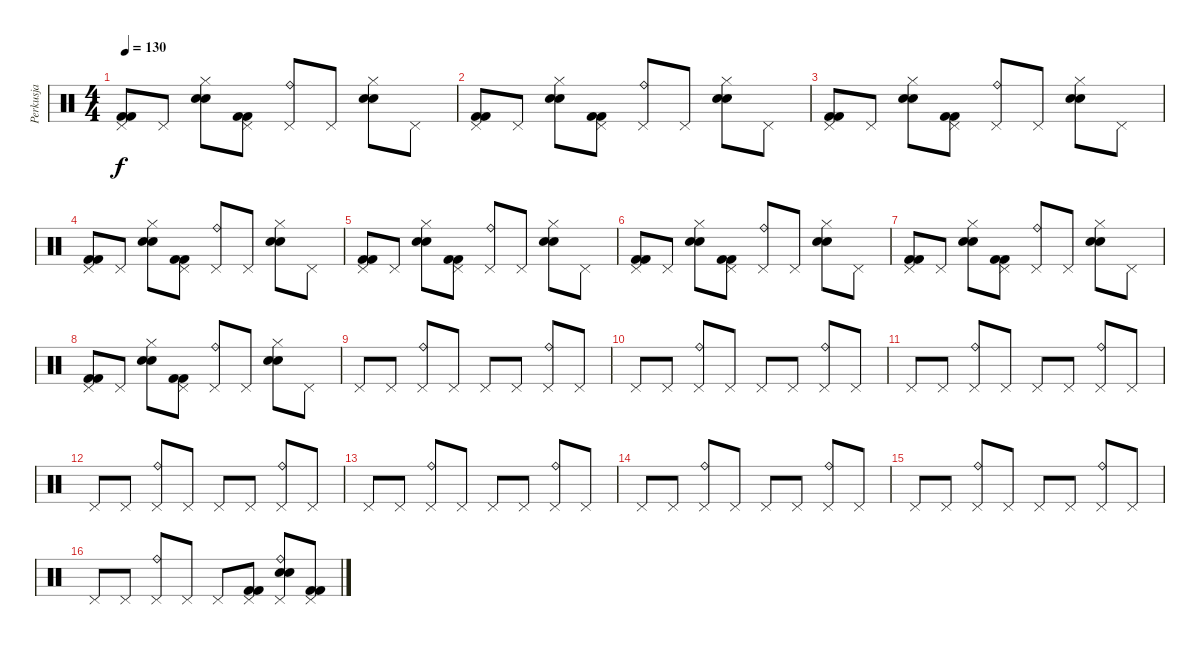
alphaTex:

\track ("Perkusja" "Perkusja") {instrument percussion}
\staff {score}
\articulation defaults
\ts (4 4)
\tempo 130
\clef neutral
\ks c
("Pedal Hi-Hat (hit)" "Kick (hit) 2" "Kick (hit) 2").8{dy f} "Pedal Hi-Hat (hit)".8 ("Hi-Hat (closed)" "Electric Snare (hit)" "Electric Snare (hit)").8 ("Pedal Hi-Hat (hit)" "Kick (hit) 2" "Kick (hit) 2").8 ("Ride (bell)" "Pedal Hi-Hat (hit)").8 "Pedal Hi-Hat (hit)".8 ("Hi-Hat (closed)" "Electric Snare (hit)" "Electric Snare (hit)").8 "Pedal Hi-Hat (hit)".8 |
("Pedal Hi-Hat (hit)" "Kick (hit) 2" "Kick (hit) 2").8 "Pedal Hi-Hat (hit)".8 ("Hi-Hat (closed)" "Electric Snare (hit)" "Electric Snare (hit)").8 ("Pedal Hi-Hat (hit)" "Kick (hit) 2" "Kick (hit) 2").8 ("Ride (bell)" "Pedal Hi-Hat (hit)").8 "Pedal Hi-Hat (hit)".8 ("Hi-Hat (closed)" "Electric Snare (hit)" "Electric Snare (hit)").8 "Pedal Hi-Hat (hit)".8 |
("Pedal Hi-Hat (hit)" "Kick (hit) 2" "Kick (hit) 2").8 "Pedal Hi-Hat (hit)".8 ("Hi-Hat (closed)" "Electric Snare (hit)" "Electric Snare (hit)").8 ("Pedal Hi-Hat (hit)" "Kick (hit) 2" "Kick (hit) 2").8 ("Ride (bell)" "Pedal Hi-Hat (hit)").8 "Pedal Hi-Hat (hit)".8 ("Hi-Hat (closed)" "Electric Snare (hit)" "Electric Snare (hit)").8 "Pedal Hi-Hat (hit)".8 |
("Pedal Hi-Hat (hit)" "Kick (hit) 2" "Kick (hit) 2").8 "Pedal Hi-Hat (hit)".8 ("Hi-Hat (closed)" "Electric Snare (hit)" "Electric Snare (hit)").8 ("Pedal Hi-Hat (hit)" "Kick (hit) 2" "Kick (hit) 2").8 ("Ride (bell)" "Pedal Hi-Hat (hit)").8 "Pedal Hi-Hat (hit)".8 ("Hi-Hat (closed)" "Electric Snare (hit)" "Electric Snare (hit)").8 "Pedal Hi-Hat (hit)".8 |
("Pedal Hi-Hat (hit)" "Kick (hit) 2" "Kick (hit) 2").8 "Pedal Hi-Hat (hit)".8 ("Hi-Hat (closed)" "Electric Snare (hit)" "Electric Snare (hit)").8 ("Pedal Hi-Hat (hit)" "Kick (hit) 2" "Kick (hit) 2").8 ("Ride (bell)" "Pedal Hi-Hat (hit)").8 "Pedal Hi-Hat (hit)".8 ("Hi-Hat (closed)" "Electric Snare (hit)" "Electric Snare (hit)").8 "Pedal Hi-Hat (hit)".8 |
("Pedal Hi-Hat (hit)" "Kick (hit) 2" "Kick (hit) 2").8 "Pedal Hi-Hat (hit)".8 ("Hi-Hat (closed)" "Electric Snare (hit)" "Electric Snare (hit)").8 ("Pedal Hi-Hat (hit)" "Kick (hit) 2" "Kick (hit) 2").8 ("Ride (bell)" "Pedal Hi-Hat (hit)").8 "Pedal Hi-Hat (hit)".8 ("Hi-Hat (closed)" "Electric Snare (hit)" "Electric Snare (hit)").8 "Pedal Hi-Hat (hit)".8 |
("Pedal Hi-Hat (hit)" "Kick (hit) 2" "Kick (hit) 2").8 "Pedal Hi-Hat (hit)".8 ("Hi-Hat (closed)" "Electric Snare (hit)" "Electric Snare (hit)").8 ("Pedal Hi-Hat (hit)" "Kick (hit) 2" "Kick (hit) 2").8 ("Ride (bell)" "Pedal Hi-Hat (hit)").8 "Pedal Hi-Hat (hit)".8 ("Hi-Hat (closed)" "Electric Snare (hit)" "Electric Snare (hit)").8 "Pedal Hi-Hat (hit)".8 |
("Pedal Hi-Hat (hit)" "Kick (hit) 2" "Kick (hit) 2").8 "Pedal Hi-Hat (hit)".8 ("Hi-Hat (closed)" "Electric Snare (hit)" "Electric Snare (hit)").8 ("Pedal Hi-Hat (hit)" "Kick (hit) 2" "Kick (hit) 2").8 ("Ride (bell)" "Pedal Hi-Hat (hit)").8 "Pedal Hi-Hat (hit)".8 ("Hi-Hat (closed)" "Electric Snare (hit)" "Electric Snare (hit)").8 "Pedal Hi-Hat (hit)".8 |
"Pedal Hi-Hat (hit)".8 "Pedal Hi-Hat (hit)".8 ("Ride (bell)" "Pedal Hi-Hat (hit)").8 "Pedal Hi-Hat (hit)".8 "Pedal Hi-Hat (hit)".8 "Pedal Hi-Hat (hit)".8 ("Ride (bell)" "Pedal Hi-Hat (hit)").8 "Pedal Hi-Hat (hit)".8 |
"Pedal Hi-Hat (hit)".8 "Pedal Hi-Hat (hit)".8 ("Ride (bell)" "Pedal Hi-Hat (hit)").8 "Pedal Hi-Hat (hit)".8 "Pedal Hi-Hat (hit)".8 "Pedal Hi-Hat (hit)".8 ("Ride (bell)" "Pedal Hi-Hat (hit)").8 "Pedal Hi-Hat (hit)".8 |
"Pedal Hi-Hat (hit)".8 "Pedal Hi-Hat (hit)".8 ("Ride (bell)" "Pedal Hi-Hat (hit)").8 "Pedal Hi-Hat (hit)".8 "Pedal Hi-Hat (hit)".8 "Pedal Hi-Hat (hit)".8 ("Ride (bell)" "Pedal Hi-Hat (hit)").8 "Pedal Hi-Hat (hit)".8 |
"Pedal Hi-Hat (hit)".8 "Pedal Hi-Hat (hit)".8 ("Ride (bell)" "Pedal Hi-Hat (hit)").8 "Pedal Hi-Hat (hit)".8 "Pedal Hi-Hat (hit)".8 "Pedal Hi-Hat (hit)".8 ("Ride (bell)" "Pedal Hi-Hat (hit)").8 "Pedal Hi-Hat (hit)".8 |
"Pedal Hi-Hat (hit)".8 "Pedal Hi-Hat (hit)".8 ("Ride (bell)" "Pedal Hi-Hat (hit)").8 "Pedal Hi-Hat (hit)".8 "Pedal Hi-Hat (hit)".8 "Pedal Hi-Hat (hit)".8 ("Ride (bell)" "Pedal Hi-Hat (hit)").8 "Pedal Hi-Hat (hit)".8 |
"Pedal Hi-Hat (hit)".8 "Pedal Hi-Hat (hit)".8 ("Ride (bell)" "Pedal Hi-Hat (hit)").8 "Pedal Hi-Hat (hit)".8 "Pedal Hi-Hat (hit)".8 "Pedal Hi-Hat (hit)".8 ("Ride (bell)" "Pedal Hi-Hat (hit)").8 "Pedal Hi-Hat (hit)".8 |
"Pedal Hi-Hat (hit)".8 "Pedal Hi-Hat (hit)".8 ("Ride (bell)" "Pedal Hi-Hat (hit)").8 "Pedal Hi-Hat (hit)".8 "Pedal Hi-Hat (hit)".8 "Pedal Hi-Hat (hit)".8 ("Ride (bell)" "Pedal Hi-Hat (hit)").8 "Pedal Hi-Hat (hit)".8 |
"Pedal Hi-Hat (hit)".8 "Pedal Hi-Hat (hit)".8 ("Ride (bell)" "Pedal Hi-Hat (hit)").8 "Pedal Hi-Hat (hit)".8 "Pedal Hi-Hat (hit)".8 ("Pedal Hi-Hat (hit)" "Kick (hit) 2" "Kick (hit) 2").8 ("Ride (bell)" "Pedal Hi-Hat (hit)" "Electric Snare (hit)" "Electric Snare (hit)").8 ("Pedal Hi-Hat (hit)" "Kick (hit) 2" "Kick (hit) 2").8
